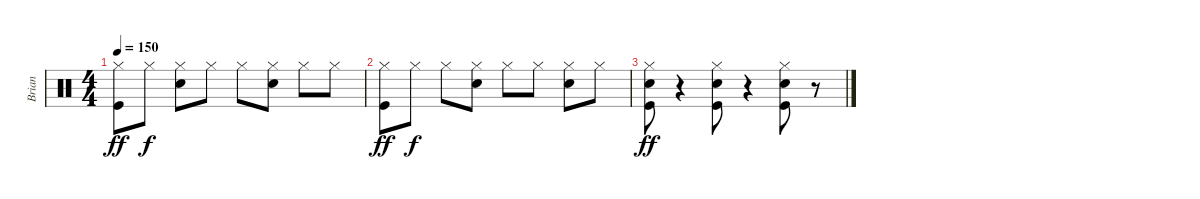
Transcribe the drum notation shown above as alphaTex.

\track ("Brian" "Brian") {instrument percussion}
\staff {score}
\articulation defaults
\ts (4 4)
\tempo 150
\clef neutral
\ks c
("Hi-Hat (closed)" "Kick (hit)").8{dy ff} "Hi-Hat (closed)".8{dy f} ("Hi-Hat (closed)" "Snare (hit) 2").8 "Hi-Hat (closed)".8 "Hi-Hat (closed)".8 ("Hi-Hat (closed)" "Snare (hit) 2").8 "Hi-Hat (closed)".8 "Hi-Hat (closed)".8 |
("Hi-Hat (closed)" "Kick (hit)").8{dy ff} "Hi-Hat (closed)".8{dy f} "Hi-Hat (closed)".8 ("Hi-Hat (closed)" "Snare (hit) 2").8 "Hi-Hat (closed)".8 "Hi-Hat (closed)".8 ("Hi-Hat (closed)" "Snare (hit) 2").8 "Hi-Hat (closed)".8 |
("Hi-Hat (closed)" "Snare (hit) 2" "Kick (hit)").8{dy ff} r.4 ("Hi-Hat (closed)" "Snare (hit) 2" "Kick (hit)").8 r.4 ("Hi-Hat (closed)" "Snare (hit) 2" "Kick (hit)").8 r.8
